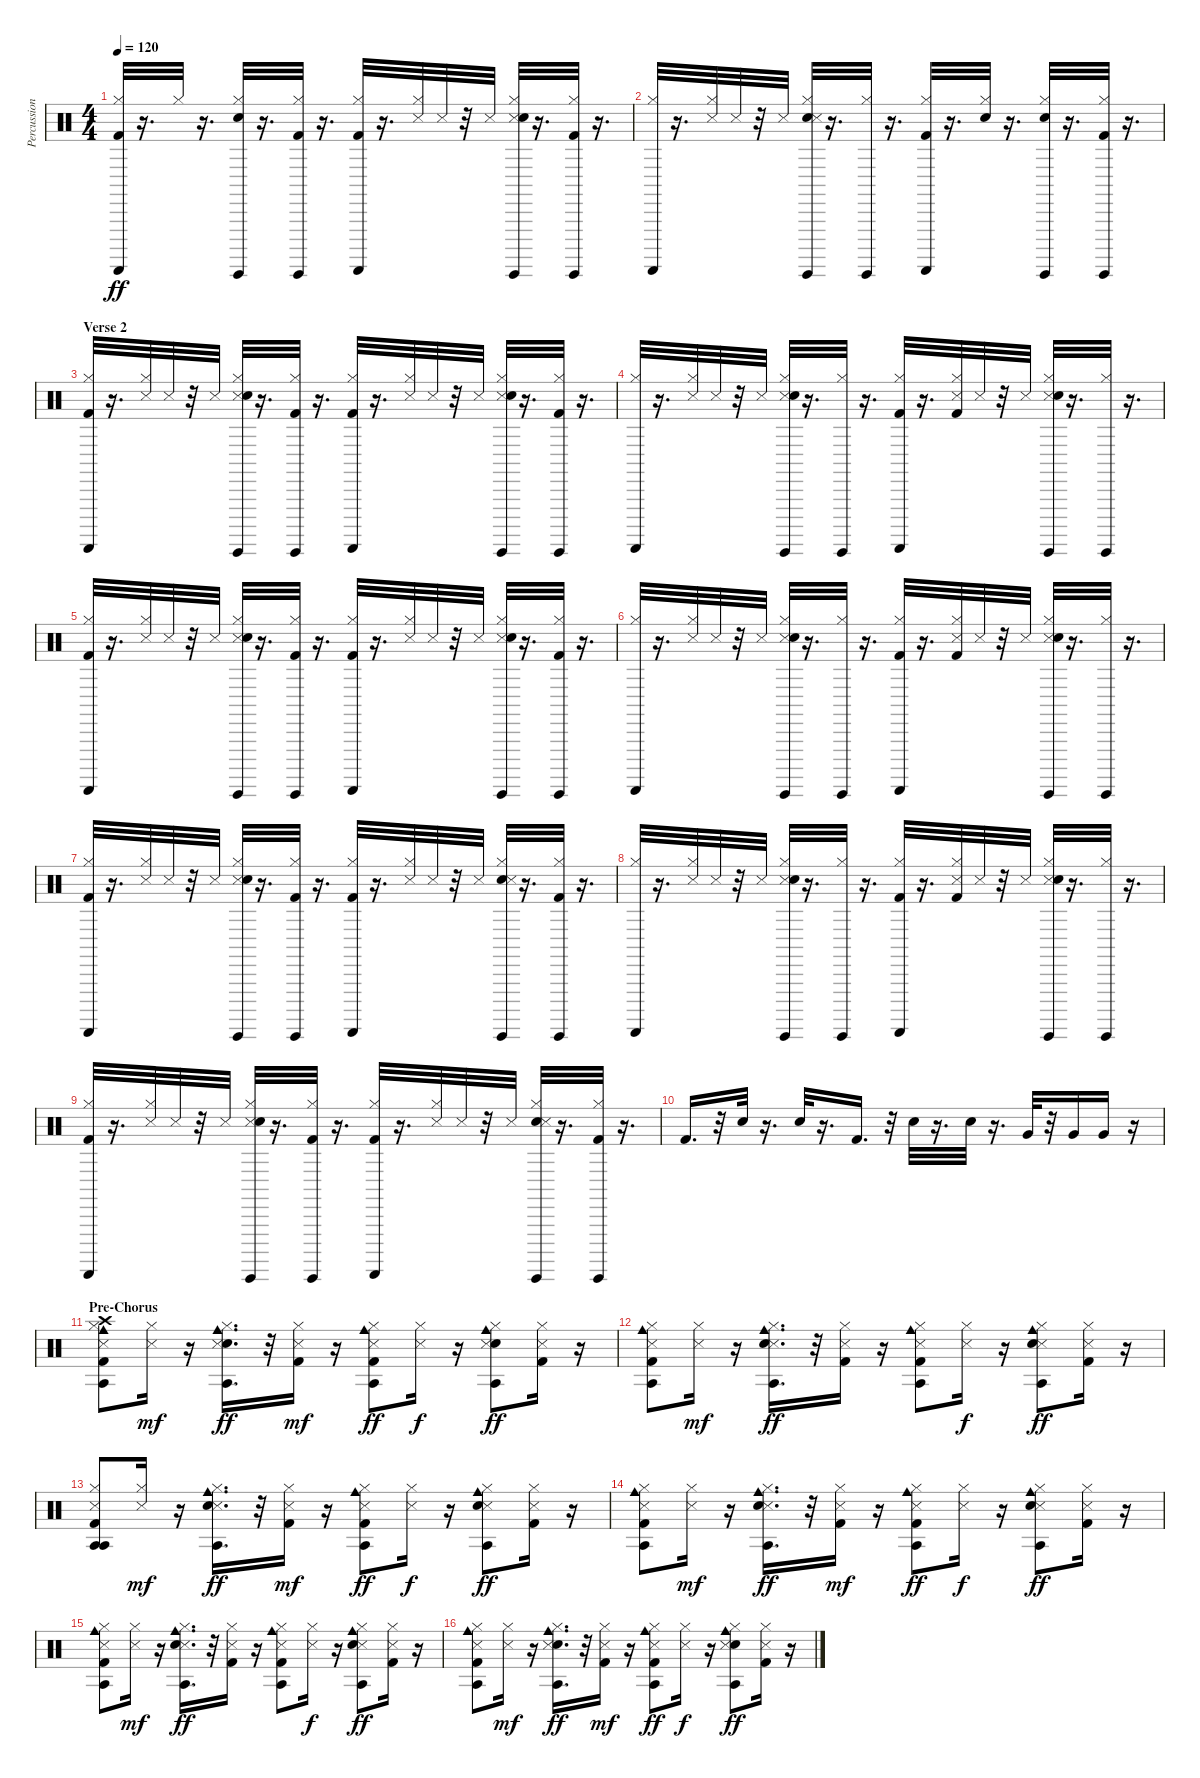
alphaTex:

\track ("Percussion" "Percussion") {instrument percussion}
\staff {score}
\articulation defaults
\ts (4 4)
\tempo 120
\clef neutral
\ks c
("Guiro (scrap-return)" "Hi-Hat (closed)" "Kick (hit) 2").32{dy ff} r.16{d} "Hi-Hat (closed)".32 r.16{d} ("Guiro (hit)" "Hi-Hat (closed)" "Snare (hit) 2").32 r.16{d} ("Guiro (hit)" "Hi-Hat (closed)" "Kick (hit) 2").32 r.16{d} ("Guiro (scrap-return)" "Hi-Hat (closed)" "Kick (hit) 2").32 r.16{d} ("Hi-Hat (closed)" "Snare (side stick) 3").32 "Snare (side stick) 3".32 r.32 "Snare (side stick) 3".32 ("Guiro (hit)" "Hi-Hat (closed)" "Snare (side stick) 3" "Snare (hit) 2").32 r.16{d} ("Kick (hit) 2" "Guiro (hit)" "Hi-Hat (closed)").32 r.16{d} |
("Guiro (scrap-return)" "Hi-Hat (closed)").32 r.16{d} ("Hi-Hat (closed)" "Snare (side stick) 3").32 "Snare (side stick) 3".32 r.32 "Snare (side stick) 3".32 ("Guiro (hit)" "Hi-Hat (closed)" "Snare (hit) 2" "Snare (side stick) 3").32 r.16{d} ("Guiro (hit)" "Hi-Hat (closed)").32 r.16{d} ("Hi-Hat (closed)" "Kick (hit) 2" "Guiro (scrap-return)").32 r.16{d} ("Electric Snare (hit)" "Hi-Hat (closed)").32 r.16{d} ("Hi-Hat (closed)" "Electric Snare (hit)" "Guiro (hit)").32 r.16{d} ("Guiro (hit)" "Hi-Hat (closed)" "Kick (hit) 2").32 r.16{d} |
\section ("" "Verse 2")
("Guiro (scrap-return)" "Hi-Hat (closed)" "Kick (hit) 2").32 r.16{d} ("Hi-Hat (closed)" "Snare (side stick) 3").32 "Snare (side stick) 3".32 r.32 "Snare (side stick) 3".32 ("Guiro (hit)" "Snare (side stick) 3" "Hi-Hat (closed)" "Snare (hit) 2").32 r.16{d} ("Guiro (hit)" "Hi-Hat (closed)" "Kick (hit) 2").32 r.16{d} ("Guiro (scrap-return)" "Hi-Hat (closed)" "Kick (hit) 2").32 r.16{d} ("Snare (side stick) 3" "Hi-Hat (closed)").32 "Snare (side stick) 3".32 r.32 "Snare (side stick) 3".32 ("Snare (side stick) 3" "Guiro (hit)" "Hi-Hat (closed)" "Snare (hit) 2").32 r.16{d} ("Guiro (hit)" "Hi-Hat (closed)" "Kick (hit) 2").32 r.16{d} |
("Guiro (scrap-return)" "Hi-Hat (closed)").32 r.16{d} ("Snare (side stick) 3" "Hi-Hat (closed)").32 "Snare (side stick) 3".32 r.32 "Snare (side stick) 3".32 ("Guiro (hit)" "Hi-Hat (closed)" "Snare (side stick) 3" "Snare (hit) 2").32 r.16{d} ("Guiro (hit)" "Hi-Hat (closed)").32 r.16{d} ("Kick (hit) 2" "Guiro (scrap-return)" "Hi-Hat (closed)").32 r.16{d} ("Snare (side stick) 3" "Hi-Hat (closed)" "Kick (hit) 2").32 "Snare (side stick) 3".32 r.32 "Snare (side stick) 3".32 ("Guiro (hit)" "Hi-Hat (closed)" "Snare (side stick) 3" "Snare (hit) 2").32 r.16{d} ("Guiro (hit)" "Hi-Hat (closed)").32 r.16{d} |
("Guiro (scrap-return)" "Hi-Hat (closed)" "Kick (hit) 2").32 r.16{d} ("Hi-Hat (closed)" "Snare (side stick) 3").32 "Snare (side stick) 3".32 r.32 "Snare (side stick) 3".32 ("Guiro (hit)" "Snare (side stick) 3" "Hi-Hat (closed)" "Snare (hit) 2").32 r.16{d} ("Guiro (hit)" "Hi-Hat (closed)" "Kick (hit) 2").32 r.16{d} ("Guiro (scrap-return)" "Hi-Hat (closed)" "Kick (hit) 2").32 r.16{d} ("Snare (side stick) 3" "Hi-Hat (closed)").32 "Snare (side stick) 3".32 r.32 "Snare (side stick) 3".32 ("Snare (side stick) 3" "Guiro (hit)" "Hi-Hat (closed)" "Snare (hit) 2").32 r.16{d} ("Guiro (hit)" "Hi-Hat (closed)" "Kick (hit) 2").32 r.16{d} |
("Guiro (scrap-return)" "Hi-Hat (closed)").32 r.16{d} ("Snare (side stick) 3" "Hi-Hat (closed)").32 "Snare (side stick) 3".32 r.32 "Snare (side stick) 3".32 ("Guiro (hit)" "Hi-Hat (closed)" "Snare (side stick) 3" "Snare (hit) 2").32 r.16{d} ("Guiro (hit)" "Hi-Hat (closed)").32 r.16{d} ("Kick (hit) 2" "Guiro (scrap-return)" "Hi-Hat (closed)").32 r.16{d} ("Snare (side stick) 3" "Hi-Hat (closed)" "Kick (hit) 2").32 "Snare (side stick) 3".32 r.32 "Snare (side stick) 3".32 ("Guiro (hit)" "Hi-Hat (closed)" "Snare (side stick) 3" "Snare (hit) 2").32 r.16{d} ("Guiro (hit)" "Hi-Hat (closed)").32 r.16{d} |
("Guiro (scrap-return)" "Hi-Hat (closed)" "Kick (hit) 2").32 r.16{d} ("Hi-Hat (closed)" "Snare (side stick) 3").32 "Snare (side stick) 3".32 r.32 "Snare (side stick) 3".32 ("Guiro (hit)" "Hi-Hat (closed)" "Snare (side stick) 3" "Snare (hit) 2").32 r.16{d} ("Guiro (hit)" "Hi-Hat (closed)" "Kick (hit) 2").32 r.16{d} ("Guiro (scrap-return)" "Hi-Hat (closed)" "Kick (hit) 2").32 r.16{d} ("Snare (side stick) 3" "Hi-Hat (closed)").32 "Snare (side stick) 3".32 r.32 "Snare (side stick) 3".32 ("Snare (hit) 2" "Hi-Hat (closed)" "Guiro (hit)" "Snare (side stick) 3").32 r.16{d} ("Kick (hit) 2" "Guiro (hit)" "Hi-Hat (closed)").32 r.16{d} |
("Hi-Hat (closed)" "Guiro (scrap-return)").32 r.16{d} ("Hi-Hat (closed)" "Snare (side stick) 3").32 "Snare (side stick) 3".32 r.32 "Snare (side stick) 3".32 ("Hi-Hat (closed)" "Guiro (hit)" "Snare (side stick) 3" "Snare (hit) 2").32 r.16{d} ("Hi-Hat (closed)" "Guiro (hit)").32 r.16{d} ("Kick (hit) 2" "Guiro (scrap-return)" "Hi-Hat (closed)").32 r.16{d} ("Hi-Hat (closed)" "Snare (side stick) 3" "Kick (hit) 2").32 "Snare (side stick) 3".32 r.32 "Snare (side stick) 3".32 ("Hi-Hat (closed)" "Guiro (hit)" "Snare (side stick) 3" "Snare (hit) 2").32 r.16{d} ("Hi-Hat (closed)" "Guiro (hit)").32 r.16{d} |
("Guiro (scrap-return)" "Hi-Hat (closed)" "Kick (hit) 2").32 r.16{d} ("Hi-Hat (closed)" "Snare (side stick) 3").32 "Snare (side stick) 3".32 r.32 "Snare (side stick) 3".32 ("Guiro (hit)" "Hi-Hat (closed)" "Snare (side stick) 3" "Snare (hit) 2").32 r.16{d} ("Guiro (hit)" "Hi-Hat (closed)" "Kick (hit) 2").32 r.16{d} ("Guiro (scrap-return)" "Hi-Hat (closed)" "Kick (hit) 2").32 r.16{d} ("Snare (side stick) 3" "Hi-Hat (closed)").32 "Snare (side stick) 3".32 r.32 "Snare (side stick) 3".32 ("Snare (hit) 2" "Hi-Hat (closed)" "Guiro (hit)" "Snare (side stick) 3").32 r.16{d} ("Kick (hit) 2" "Guiro (hit)" "Hi-Hat (closed)").32 r.16{d} |
"Kick (hit) 2".16{d} r.32 "Electric Snare (hit)".32 r.16{d} "Electric Snare (hit)".32 r.16{d} "Kick (hit) 2".16{d} r.32 "Electric Snare (hit)".32 r.16{d} "Electric Snare (hit)".32 r.16{d} "Very Low Tom (hit)".32 r.32 "Very Low Tom (hit)".16 "Very Low Tom (hit)".16 r.16 |
\section ("" "Pre-Chorus")
("Kick (hit) 2" "Hi-Hat (closed)" "Agogo tow (hit)" "Crash high (hit)" "Cowbell medium (hit)" "Snare (side stick) 3").8 ("Hi-Hat (closed)" "Snare (side stick) 3").16{dy mf} r.16 ("Snare (hit) 2" "Hi-Hat (closed)" "Agogo tow (hit)" "Cowbell medium (hit)" "Snare (side stick) 3").16{d dy ff} r.32 ("Kick (hit) 2" "Hi-Hat (closed)" "Snare (side stick) 3").16{dy mf} r.16 ("Kick (hit) 2" "Hi-Hat (closed)" "Agogo tow (hit)" "Cowbell medium (hit)" "Snare (side stick) 3").8{dy ff} ("Hi-Hat (closed)" "Snare (side stick) 3").16{dy f} r.16 ("Snare (hit) 2" "Hi-Hat (closed)" "Agogo tow (hit)" "Cowbell medium (hit)" "Snare (side stick) 3").8{dy ff} ("Kick (hit) 2" "Hi-Hat (closed)" "Snare (side stick) 3").16 r.16 |
("Cowbell medium (hit)" "Snare (side stick) 3" "Hi-Hat (closed)" "Agogo tow (hit)" "Kick (hit) 2").8 ("Snare (side stick) 3" "Hi-Hat (closed)").16{dy mf} r.16 ("Cowbell medium (hit)" "Snare (side stick) 3" "Hi-Hat (closed)" "Agogo tow (hit)" "Snare (hit) 2").16{d dy ff} r.32 ("Snare (side stick) 3" "Hi-Hat (closed)" "Kick (hit) 2").16 r.16 ("Cowbell medium (hit)" "Snare (side stick) 3" "Hi-Hat (closed)" "Agogo tow (hit)" "Kick (hit) 2").8 ("Snare (side stick) 3" "Hi-Hat (closed)").16{dy f} r.16 ("Cowbell medium (hit)" "Snare (side stick) 3" "Hi-Hat (closed)" "Agogo tow (hit)" "Snare (hit) 2").8{dy ff} ("Snare (side stick) 3" "Hi-Hat (closed)" "Kick (hit) 2").16 r.16 |
("Snare (side stick) 3" "Agogo tow (hit)" "Kick (hit) 2" "Agogo tow (hit)" "Hi-Hat (closed)").8 ("Snare (side stick) 3" "Hi-Hat (closed)").16{dy mf} r.16 ("Snare (side stick) 3" "Agogo tow (hit)" "Snare (hit) 2" "Cowbell medium (hit)" "Hi-Hat (closed)").16{d dy ff} r.32 ("Snare (side stick) 3" "Kick (hit) 2" "Hi-Hat (closed)").16{dy mf} r.16 ("Snare (side stick) 3" "Agogo tow (hit)" "Kick (hit) 2" "Cowbell medium (hit)" "Hi-Hat (closed)").8{dy ff} ("Snare (side stick) 3" "Hi-Hat (closed)").16{dy f} r.16 ("Snare (side stick) 3" "Agogo tow (hit)" "Snare (hit) 2" "Cowbell medium (hit)" "Hi-Hat (closed)").8{dy ff} ("Snare (side stick) 3" "Kick (hit) 2" "Hi-Hat (closed)").16 r.16 |
("Cowbell medium (hit)" "Agogo tow (hit)" "Snare (side stick) 3" "Kick (hit) 2" "Hi-Hat (closed)").8 ("Snare (side stick) 3" "Hi-Hat (closed)").16{dy mf} r.16 ("Cowbell medium (hit)" "Agogo tow (hit)" "Snare (side stick) 3" "Snare (hit) 2" "Hi-Hat (closed)").16{d dy ff} r.32 ("Snare (side stick) 3" "Kick (hit) 2" "Hi-Hat (closed)").16{dy mf} r.16 ("Cowbell medium (hit)" "Agogo tow (hit)" "Snare (side stick) 3" "Kick (hit) 2" "Hi-Hat (closed)").8{dy ff} ("Snare (side stick) 3" "Hi-Hat (closed)").16{dy f} r.16 ("Cowbell medium (hit)" "Agogo tow (hit)" "Snare (side stick) 3" "Snare (hit) 2" "Hi-Hat (closed)").8{dy ff} ("Snare (side stick) 3" "Kick (hit) 2" "Hi-Hat (closed)").16 r.16 |
("Hi-Hat (closed)" "Cowbell medium (hit)" "Snare (side stick) 3" "Agogo tow (hit)" "Kick (hit) 2").8 ("Hi-Hat (closed)" "Snare (side stick) 3").16{dy mf} r.16 ("Hi-Hat (closed)" "Cowbell medium (hit)" "Snare (side stick) 3" "Agogo tow (hit)" "Snare (hit) 2").16{d dy ff} r.32 ("Hi-Hat (closed)" "Snare (side stick) 3" "Kick (hit) 2").16 r.16 ("Hi-Hat (closed)" "Cowbell medium (hit)" "Snare (side stick) 3" "Agogo tow (hit)" "Kick (hit) 2").8 ("Hi-Hat (closed)" "Snare (side stick) 3").16{dy f} r.16 ("Hi-Hat (closed)" "Cowbell medium (hit)" "Snare (side stick) 3" "Agogo tow (hit)" "Snare (hit) 2").8{dy ff} ("Hi-Hat (closed)" "Snare (side stick) 3" "Kick (hit) 2").16 r.16 |
("Kick (hit) 2" "Agogo tow (hit)" "Cowbell medium (hit)" "Snare (side stick) 3" "Hi-Hat (closed)").8 ("Snare (side stick) 3" "Hi-Hat (closed)").16{dy mf} r.16 ("Snare (hit) 2" "Agogo tow (hit)" "Cowbell medium (hit)" "Snare (side stick) 3" "Hi-Hat (closed)").16{d dy ff} r.32 ("Kick (hit) 2" "Snare (side stick) 3" "Hi-Hat (closed)").16{dy mf} r.16 ("Kick (hit) 2" "Agogo tow (hit)" "Cowbell medium (hit)" "Snare (side stick) 3" "Hi-Hat (closed)").8{dy ff} ("Snare (side stick) 3" "Hi-Hat (closed)").16{dy f} r.16 ("Snare (hit) 2" "Agogo tow (hit)" "Cowbell medium (hit)" "Snare (side stick) 3" "Hi-Hat (closed)").8{dy ff} ("Kick (hit) 2" "Snare (side stick) 3" "Hi-Hat (closed)").16 r.16
